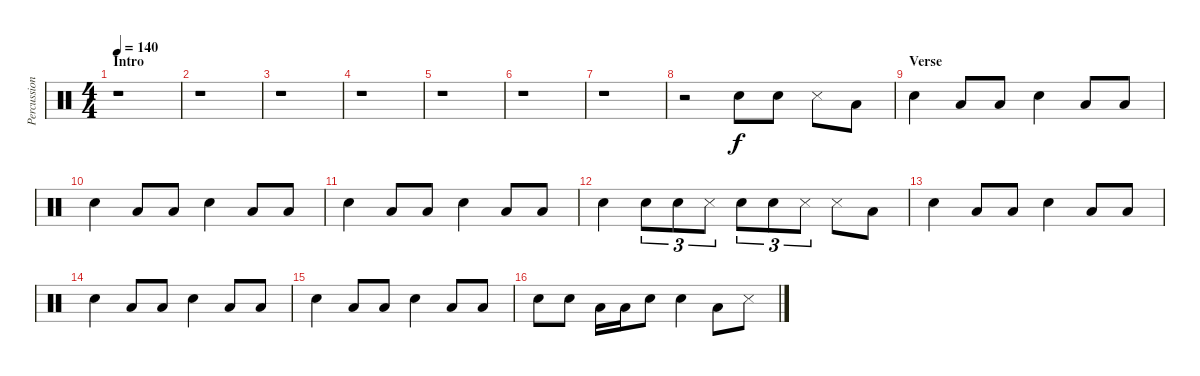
\track ("Percussion" "Percussion") {instrument percussion}
\staff {score}
\articulation defaults
\ts (4 4)
\section ("" "Intro")
\tempo 140
\clef neutral
\ks c
r.1{dy f} |
r.1 |
r.1 |
r.1 |
r.1 |
r.1 |
r.1 |
r.2 "Electric Snare (hit)".8 "Snare (hit) 2".8 "Snare (side stick) 3".8 "Low Floor Tom (hit)".8 |
\section ("" "Verse")
"Electric Snare (hit)".4 "Low Floor Tom (hit)".8 "Low Floor Tom (hit)".8 "Electric Snare (hit)".4 "Low Floor Tom (hit)".8 "Low Floor Tom (hit)".8 |
"Electric Snare (hit)".4 "Low Floor Tom (hit)".8 "Low Floor Tom (hit)".8 "Electric Snare (hit)".4 "Low Floor Tom (hit)".8 "Low Floor Tom (hit)".8 |
"Electric Snare (hit)".4 "Low Floor Tom (hit)".8 "Low Floor Tom (hit)".8 "Electric Snare (hit)".4 "Low Floor Tom (hit)".8 "Low Floor Tom (hit)".8 |
"Electric Snare (hit)".4 "Electric Snare (hit)".8{tu (3 2)} "Snare (hit) 2".8{tu (3 2)} "Snare (side stick) 3".8{tu (3 2)} "Electric Snare (hit)".8{tu (3 2)} "Snare (hit) 2".8{tu (3 2)} "Snare (side stick) 3".8{tu (3 2)} "Snare (side stick) 3".8 "Low Floor Tom (hit)".8 |
"Electric Snare (hit)".4 "Low Floor Tom (hit)".8 "Low Floor Tom (hit)".8 "Electric Snare (hit)".4 "Low Floor Tom (hit)".8 "Low Floor Tom (hit)".8 |
"Electric Snare (hit)".4 "Low Floor Tom (hit)".8 "Low Floor Tom (hit)".8 "Electric Snare (hit)".4 "Low Floor Tom (hit)".8 "Low Floor Tom (hit)".8 |
"Electric Snare (hit)".4 "Low Floor Tom (hit)".8 "Low Floor Tom (hit)".8 "Electric Snare (hit)".4 "Low Floor Tom (hit)".8 "Low Floor Tom (hit)".8 |
"Electric Snare (hit)".8 "Electric Snare (hit)".8 "Low Floor Tom (hit)".16 "Low Floor Tom (hit)".16 "Electric Snare (hit)".8 "Snare (hit) 2".4 "Low Floor Tom (hit)".8 "Snare (side stick) 3".8
